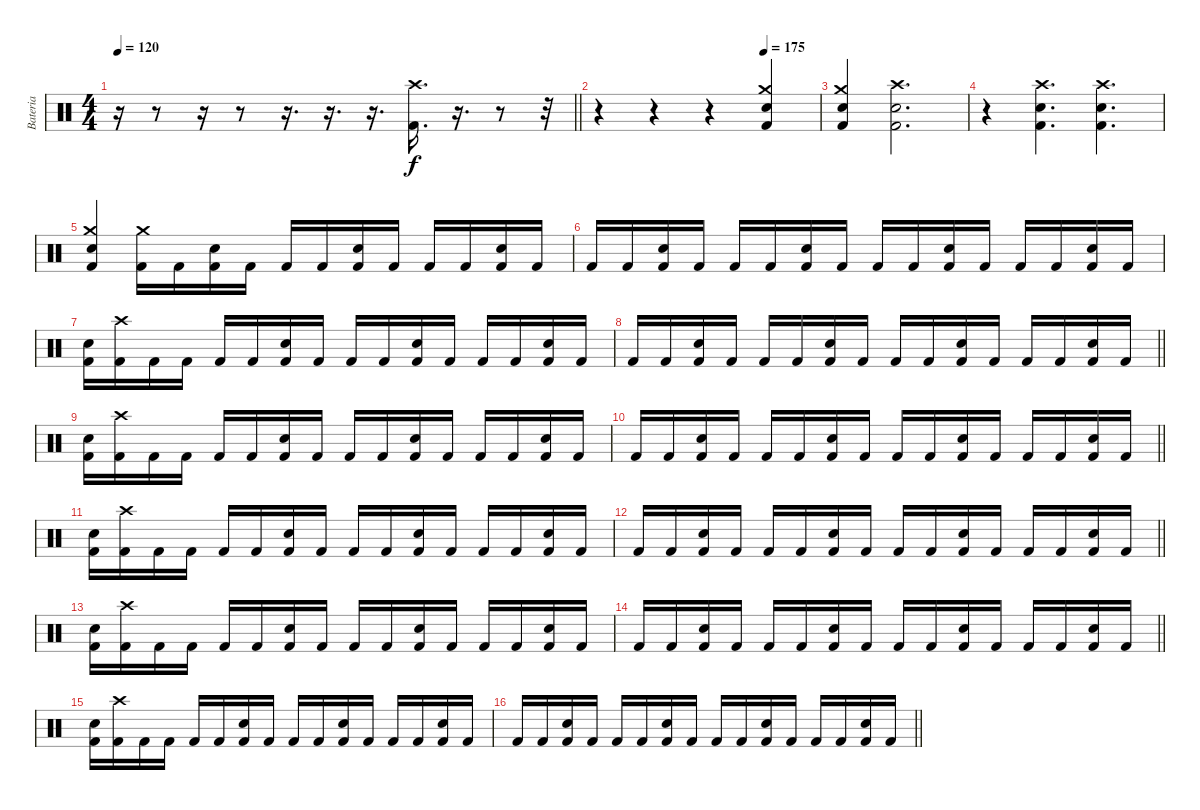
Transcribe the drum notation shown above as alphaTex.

\track ("Bateria" "Bateria") {instrument percussion}
\staff {score}
\articulation defaults
\ts (4 4)
\tempo 120
\clef neutral
\barLineRight lightlight
\ks c
r.16{dy f} r.8 r.16 r.8 r.16{d} r.16{d} r.16{d} ("Crash high (hit)" "Kick (hit) 2").16{d} r.16{d} r.8 r.32 |
\tempo (175 0.75)
r.4 r.4 r.4 ("Crash medium (hit)" "Snare (hit) 2" "Kick (hit) 2").4 |
("Crash medium (hit)" "Snare (hit) 2" "Kick (hit) 2").4 ("Crash high (hit)" "Snare (hit) 2" "Kick (hit) 2").2{d} |
r.4 ("Crash high (hit)" "Snare (hit) 2" "Kick (hit) 2").4{d} ("Crash high (hit)" "Snare (hit) 2" "Kick (hit) 2").4{d} |
("Crash medium (hit)" "Snare (hit) 2" "Kick (hit) 2").4 ("Crash medium (hit)" "Kick (hit) 2").16 "Kick (hit) 2".16 ("Snare (hit) 2" "Kick (hit) 2").16 "Kick (hit) 2".16 "Kick (hit) 2".16 "Kick (hit) 2".16 ("Snare (hit) 2" "Kick (hit) 2").16 "Kick (hit) 2".16 "Kick (hit) 2".16 "Kick (hit) 2".16 ("Snare (hit) 2" "Kick (hit) 2").16 "Kick (hit) 2".16 |
"Kick (hit) 2".16 "Kick (hit) 2".16 ("Snare (hit) 2" "Kick (hit) 2").16 "Kick (hit) 2".16 "Kick (hit) 2".16 "Kick (hit) 2".16 ("Snare (hit) 2" "Kick (hit) 2").16 "Kick (hit) 2".16 "Kick (hit) 2".16 "Kick (hit) 2".16 ("Snare (hit) 2" "Kick (hit) 2").16 "Kick (hit) 2".16 "Kick (hit) 2".16 "Kick (hit) 2".16 ("Snare (hit) 2" "Kick (hit) 2").16 "Kick (hit) 2".16 |
("Snare (hit) 2" "Kick (hit) 2").16 ("Crash high (hit)" "Kick (hit) 2").16 "Kick (hit) 2".16 "Kick (hit) 2".16 "Kick (hit) 2".16 "Kick (hit) 2".16 ("Snare (hit) 2" "Kick (hit) 2").16 "Kick (hit) 2".16 "Kick (hit) 2".16 "Kick (hit) 2".16 ("Snare (hit) 2" "Kick (hit) 2").16 "Kick (hit) 2".16 "Kick (hit) 2".16 "Kick (hit) 2".16 ("Snare (hit) 2" "Kick (hit) 2").16 "Kick (hit) 2".16 |
\barLineRight lightlight "Kick (hit) 2".16 "Kick (hit) 2".16
("Snare (hit) 2" "Kick (hit) 2").16 "Kick (hit) 2".16 "Kick (hit) 2".16 "Kick (hit) 2".16 ("Snare (hit) 2" "Kick (hit) 2").16 "Kick (hit) 2".16 "Kick (hit) 2".16 "Kick (hit) 2".16 ("Snare (hit) 2" "Kick (hit) 2").16 "Kick (hit) 2".16 "Kick (hit) 2".16 "Kick (hit) 2".16 ("Snare (hit) 2" "Kick (hit) 2").16 "Kick (hit) 2".16 |
("Snare (hit) 2" "Kick (hit) 2").16 ("Crash high (hit)" "Kick (hit) 2").16 "Kick (hit) 2".16 "Kick (hit) 2".16 "Kick (hit) 2".16 "Kick (hit) 2".16 ("Snare (hit) 2" "Kick (hit) 2").16 "Kick (hit) 2".16 "Kick (hit) 2".16 "Kick (hit) 2".16 ("Snare (hit) 2" "Kick (hit) 2").16 "Kick (hit) 2".16 "Kick (hit) 2".16 "Kick (hit) 2".16 ("Snare (hit) 2" "Kick (hit) 2").16 "Kick (hit) 2".16 |
\barLineRight lightlight "Kick (hit) 2".16 "Kick (hit) 2".16
("Snare (hit) 2" "Kick (hit) 2").16 "Kick (hit) 2".16 "Kick (hit) 2".16 "Kick (hit) 2".16 ("Snare (hit) 2" "Kick (hit) 2").16 "Kick (hit) 2".16 "Kick (hit) 2".16 "Kick (hit) 2".16 ("Snare (hit) 2" "Kick (hit) 2").16 "Kick (hit) 2".16 "Kick (hit) 2".16 "Kick (hit) 2".16 ("Snare (hit) 2" "Kick (hit) 2").16 "Kick (hit) 2".16 |
("Snare (hit) 2" "Kick (hit) 2").16 ("Crash high (hit)" "Kick (hit) 2").16 "Kick (hit) 2".16 "Kick (hit) 2".16 "Kick (hit) 2".16 "Kick (hit) 2".16 ("Snare (hit) 2" "Kick (hit) 2").16 "Kick (hit) 2".16 "Kick (hit) 2".16 "Kick (hit) 2".16 ("Snare (hit) 2" "Kick (hit) 2").16 "Kick (hit) 2".16 "Kick (hit) 2".16 "Kick (hit) 2".16 ("Snare (hit) 2" "Kick (hit) 2").16 "Kick (hit) 2".16 |
\barLineRight lightlight "Kick (hit) 2".16 "Kick (hit) 2".16
("Snare (hit) 2" "Kick (hit) 2").16 "Kick (hit) 2".16 "Kick (hit) 2".16 "Kick (hit) 2".16 ("Snare (hit) 2" "Kick (hit) 2").16 "Kick (hit) 2".16 "Kick (hit) 2".16 "Kick (hit) 2".16 ("Snare (hit) 2" "Kick (hit) 2").16 "Kick (hit) 2".16 "Kick (hit) 2".16 "Kick (hit) 2".16 ("Snare (hit) 2" "Kick (hit) 2").16 "Kick (hit) 2".16 |
("Snare (hit) 2" "Kick (hit) 2").16 ("Crash high (hit)" "Kick (hit) 2").16 "Kick (hit) 2".16 "Kick (hit) 2".16 "Kick (hit) 2".16 "Kick (hit) 2".16 ("Snare (hit) 2" "Kick (hit) 2").16 "Kick (hit) 2".16 "Kick (hit) 2".16 "Kick (hit) 2".16 ("Snare (hit) 2" "Kick (hit) 2").16 "Kick (hit) 2".16 "Kick (hit) 2".16 "Kick (hit) 2".16 ("Snare (hit) 2" "Kick (hit) 2").16 "Kick (hit) 2".16 |
\barLineRight lightlight "Kick (hit) 2".16 "Kick (hit) 2".16
("Snare (hit) 2" "Kick (hit) 2").16 "Kick (hit) 2".16 "Kick (hit) 2".16 "Kick (hit) 2".16 ("Snare (hit) 2" "Kick (hit) 2").16 "Kick (hit) 2".16 "Kick (hit) 2".16 "Kick (hit) 2".16 ("Snare (hit) 2" "Kick (hit) 2").16 "Kick (hit) 2".16 "Kick (hit) 2".16 "Kick (hit) 2".16 ("Snare (hit) 2" "Kick (hit) 2").16 "Kick (hit) 2".16 |
("Snare (hit) 2" "Kick (hit) 2").16 ("Crash high (hit)" "Kick (hit) 2").16 "Kick (hit) 2".16 "Kick (hit) 2".16 "Kick (hit) 2".16 "Kick (hit) 2".16 ("Snare (hit) 2" "Kick (hit) 2").16 "Kick (hit) 2".16 "Kick (hit) 2".16 "Kick (hit) 2".16 ("Snare (hit) 2" "Kick (hit) 2").16 "Kick (hit) 2".16 "Kick (hit) 2".16 "Kick (hit) 2".16 ("Snare (hit) 2" "Kick (hit) 2").16 "Kick (hit) 2".16 |
\barLineRight lightlight "Kick (hit) 2".16 "Kick (hit) 2".16
("Snare (hit) 2" "Kick (hit) 2").16 "Kick (hit) 2".16 "Kick (hit) 2".16 "Kick (hit) 2".16 ("Snare (hit) 2" "Kick (hit) 2").16 "Kick (hit) 2".16 "Kick (hit) 2".16 "Kick (hit) 2".16 ("Snare (hit) 2" "Kick (hit) 2").16 "Kick (hit) 2".16 "Kick (hit) 2".16 "Kick (hit) 2".16 ("Snare (hit) 2" "Kick (hit) 2").16 "Kick (hit) 2".16
